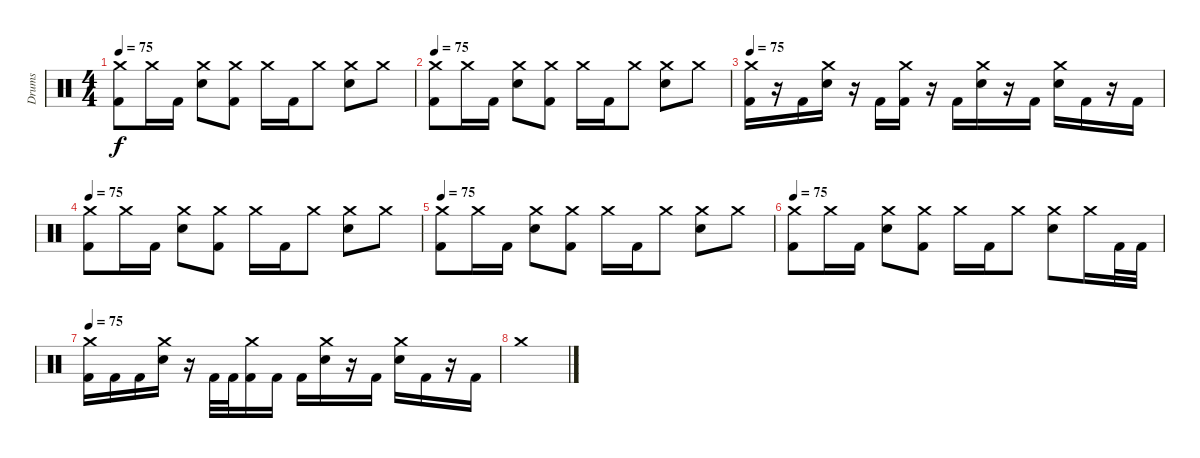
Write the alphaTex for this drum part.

\track ("Drums" "Drums") {instrument percussion}
\staff {score}
\articulation defaults
\ts (4 4)
\tempo 75
\clef neutral
\ks c
("Crash medium (hit)" "Kick (hit) 2").8{dy f} "Crash medium (hit)".16 "Kick (hit) 2".16 ("Crash medium (hit)" "Electric Snare (hit)").8 ("Crash medium (hit)" "Kick (hit) 2").8 "Crash medium (hit)".16 "Kick (hit) 2".16 "Crash medium (hit)".8 ("Crash medium (hit)" "Electric Snare (hit)").8 "Crash medium (hit)".8 |
\tempo 75
("Crash medium (hit)" "Kick (hit) 2").8 "Crash medium (hit)".16 "Kick (hit) 2".16 ("Crash medium (hit)" "Electric Snare (hit)").8 ("Crash medium (hit)" "Kick (hit) 2").8 "Crash medium (hit)".16 "Kick (hit) 2".16 "Crash medium (hit)".8 ("Crash medium (hit)" "Electric Snare (hit)").8 "Crash medium (hit)".8 |
\tempo 70
\tempo 75
("Crash medium (hit)" "Kick (hit) 2").16 r.16 "Kick (hit) 2".16 ("Crash medium (hit)" "Electric Snare (hit)").16 r.16 "Kick (hit) 2".16 ("Crash medium (hit)" "Kick (hit) 2").16 r.16 "Kick (hit) 2".16 ("Crash medium (hit)" "Electric Snare (hit)").16 r.16 "Kick (hit) 2".16 ("Crash medium (hit)" "Electric Snare (hit)").16 "Kick (hit) 2".16 r.16 "Kick (hit) 2".16 |
\tempo 75
("Crash medium (hit)" "Kick (hit) 2").8 "Crash medium (hit)".16 "Kick (hit) 2".16 ("Crash medium (hit)" "Electric Snare (hit)").8 ("Crash medium (hit)" "Kick (hit) 2").8 "Crash medium (hit)".16 "Kick (hit) 2".16 "Crash medium (hit)".8 ("Crash medium (hit)" "Electric Snare (hit)").8 "Crash medium (hit)".8 |
\tempo 75
("Crash medium (hit)" "Kick (hit) 2").8 "Crash medium (hit)".16 "Kick (hit) 2".16 ("Crash medium (hit)" "Electric Snare (hit)").8 ("Crash medium (hit)" "Kick (hit) 2").8 "Crash medium (hit)".16 "Kick (hit) 2".16 "Crash medium (hit)".8 ("Crash medium (hit)" "Electric Snare (hit)").8 "Crash medium (hit)".8 |
\tempo 75
("Crash medium (hit)" "Kick (hit) 2").8 "Crash medium (hit)".16 "Kick (hit) 2".16 ("Crash medium (hit)" "Electric Snare (hit)").8 ("Crash medium (hit)" "Kick (hit) 2").8 "Crash medium (hit)".16 "Kick (hit) 2".16 "Crash medium (hit)".8 ("Crash medium (hit)" "Electric Snare (hit)").8 "Crash medium (hit)".16 "Kick (hit) 2".32 "Kick (hit) 2".32 |
\tempo 75
("Crash medium (hit)" "Kick (hit) 2").16 "Kick (hit) 2".16 "Kick (hit) 2".16 ("Crash medium (hit)" "Electric Snare (hit)").16 r.16 "Kick (hit) 2".32 "Kick (hit) 2".32 ("Crash medium (hit)" "Kick (hit) 2").16 "Kick (hit) 2".16 "Kick (hit) 2".16 ("Crash medium (hit)" "Electric Snare (hit)").16 r.16 "Kick (hit) 2".16 ("Crash medium (hit)" "Electric Snare (hit)").16 "Kick (hit) 2".16 r.16 "Kick (hit) 2".16 |
\section ("" "")
"Crash medium (hit)".1
